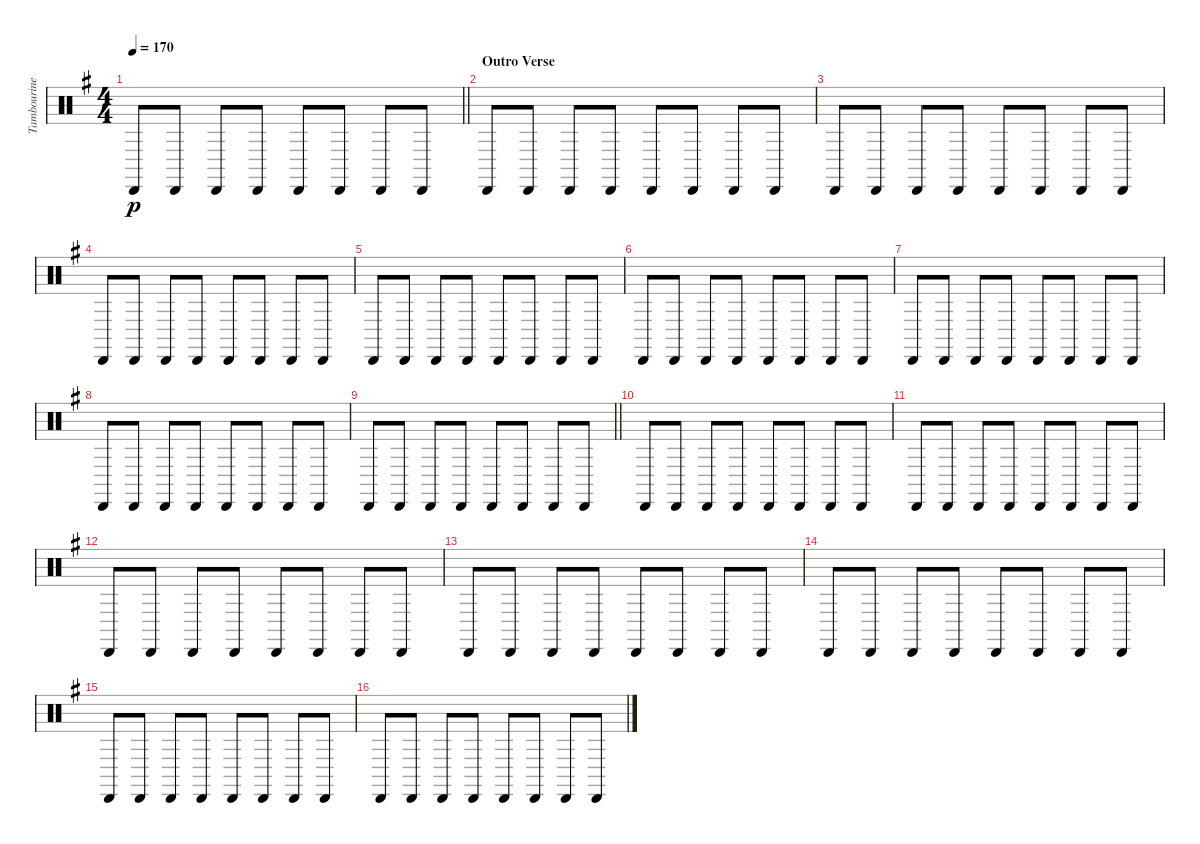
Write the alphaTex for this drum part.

\track ("Tambourine" "Tambourine") {instrument percussion}
\staff {score}
\articulation defaults
\ts (4 4)
\tempo 170
\clef neutral
\barLineRight lightlight
\ks eminor "Cabasa (hit)".8{dy p} "Cabasa (hit)".8 "Cabasa (hit)".8 "Cabasa (hit)".8 "Cabasa (hit)".8 "Cabasa (hit)".8 "Cabasa (hit)".8 "Cabasa (hit)".8
|
\section ("" "Outro Verse")
"Cabasa (hit)".8 "Cabasa (hit)".8 "Cabasa (hit)".8 "Cabasa (hit)".8 "Cabasa (hit)".8 "Cabasa (hit)".8 "Cabasa (hit)".8 "Cabasa (hit)".8 |
"Cabasa (hit)".8 "Cabasa (hit)".8 "Cabasa (hit)".8 "Cabasa (hit)".8 "Cabasa (hit)".8 "Cabasa (hit)".8 "Cabasa (hit)".8 "Cabasa (hit)".8 |
"Cabasa (hit)".8 "Cabasa (hit)".8 "Cabasa (hit)".8 "Cabasa (hit)".8 "Cabasa (hit)".8 "Cabasa (hit)".8 "Cabasa (hit)".8 "Cabasa (hit)".8 |
"Cabasa (hit)".8 "Cabasa (hit)".8 "Cabasa (hit)".8 "Cabasa (hit)".8 "Cabasa (hit)".8 "Cabasa (hit)".8 "Cabasa (hit)".8 "Cabasa (hit)".8 |
"Cabasa (hit)".8 "Cabasa (hit)".8 "Cabasa (hit)".8 "Cabasa (hit)".8 "Cabasa (hit)".8 "Cabasa (hit)".8 "Cabasa (hit)".8 "Cabasa (hit)".8 |
"Cabasa (hit)".8 "Cabasa (hit)".8 "Cabasa (hit)".8 "Cabasa (hit)".8 "Cabasa (hit)".8 "Cabasa (hit)".8 "Cabasa (hit)".8 "Cabasa (hit)".8 |
"Cabasa (hit)".8 "Cabasa (hit)".8 "Cabasa (hit)".8 "Cabasa (hit)".8 "Cabasa (hit)".8 "Cabasa (hit)".8 "Cabasa (hit)".8 "Cabasa (hit)".8 |
\barLineRight lightlight "Cabasa (hit)".8 "Cabasa (hit)".8 "Cabasa (hit)".8 "Cabasa (hit)".8 "Cabasa (hit)".8 "Cabasa (hit)".8 "Cabasa (hit)".8 "Cabasa (hit)".8
|
"Cabasa (hit)".8 "Cabasa (hit)".8 "Cabasa (hit)".8 "Cabasa (hit)".8 "Cabasa (hit)".8 "Cabasa (hit)".8 "Cabasa (hit)".8 "Cabasa (hit)".8 |
"Cabasa (hit)".8 "Cabasa (hit)".8 "Cabasa (hit)".8 "Cabasa (hit)".8 "Cabasa (hit)".8 "Cabasa (hit)".8 "Cabasa (hit)".8 "Cabasa (hit)".8 |
"Cabasa (hit)".8 "Cabasa (hit)".8 "Cabasa (hit)".8 "Cabasa (hit)".8 "Cabasa (hit)".8 "Cabasa (hit)".8 "Cabasa (hit)".8 "Cabasa (hit)".8 |
"Cabasa (hit)".8 "Cabasa (hit)".8 "Cabasa (hit)".8 "Cabasa (hit)".8 "Cabasa (hit)".8 "Cabasa (hit)".8 "Cabasa (hit)".8 "Cabasa (hit)".8 |
"Cabasa (hit)".8 "Cabasa (hit)".8 "Cabasa (hit)".8 "Cabasa (hit)".8 "Cabasa (hit)".8 "Cabasa (hit)".8 "Cabasa (hit)".8 "Cabasa (hit)".8 |
"Cabasa (hit)".8 "Cabasa (hit)".8 "Cabasa (hit)".8 "Cabasa (hit)".8 "Cabasa (hit)".8 "Cabasa (hit)".8 "Cabasa (hit)".8 "Cabasa (hit)".8 |
"Cabasa (hit)".8 "Cabasa (hit)".8 "Cabasa (hit)".8 "Cabasa (hit)".8 "Cabasa (hit)".8 "Cabasa (hit)".8 "Cabasa (hit)".8 "Cabasa (hit)".8
